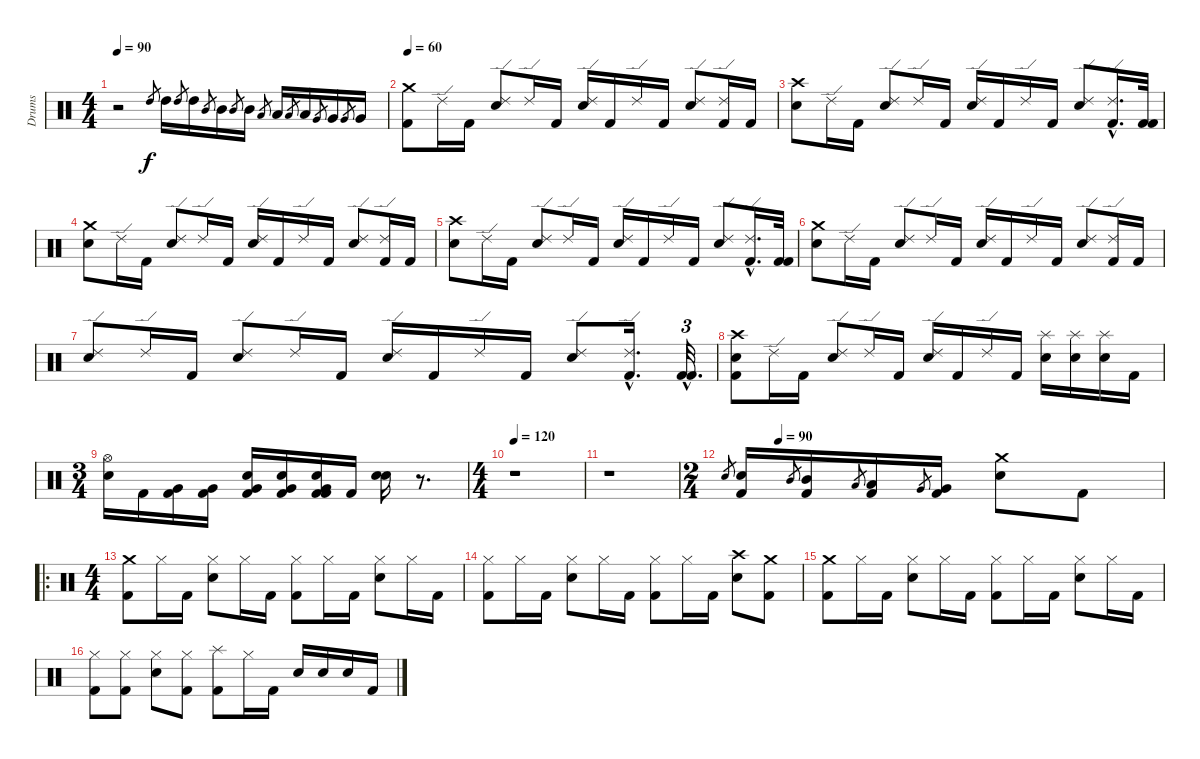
\track ("Drums" "Drums") {instrument percussion}
\staff {score}
\articulation defaults
\ts (4 4)
\tempo 90
\clef neutral
\ks c
r.2{dy f} "High Tom (hit)".8{gr} "High Tom (hit)".16 "High Tom (hit)".8{gr} "High Tom (hit)".16 "Mid Tom (hit)".8{gr} "Mid Tom (hit)".16 "Mid Tom (hit)".8{gr} "Mid Tom (hit)".16 "Low Tom (hit)".8{gr} "Low Tom (hit)".16 "Low Tom (hit)".8{gr} "Low Tom (hit)".16 "Very Low Tom (hit)".8{gr} "Very Low Tom (hit)".16 "Very Low Tom (hit)".8{gr} "Very Low Tom (hit)".16 |
\tempo 60
("Crash medium (hit)" "Kick (hit) 2").8 "Ride (edge) 2".16 "Kick (hit) 2".16 ("Ride (edge) 2" "Electric Snare (hit)").8 "Ride (edge) 2".16 "Kick (hit) 2".16 ("Ride (edge) 2" "Electric Snare (hit)").16 "Kick (hit) 2".16 "Ride (edge) 2".16 "Kick (hit) 2".16 ("Ride (edge) 2" "Electric Snare (hit)").8 ("Ride (edge) 2" "Kick (hit) 2").16 "Kick (hit) 2".16 |
("Crash high (hit)" "Electric Snare (hit)").8 "Ride (edge) 2".16 "Kick (hit) 2".16 ("Ride (edge) 2" "Electric Snare (hit)").8 "Ride (edge) 2".16 "Kick (hit) 2".16 ("Ride (edge) 2" "Electric Snare (hit)").16 "Kick (hit) 2".16 "Ride (edge) 2".16 "Kick (hit) 2".16 ("Ride (edge) 2" "Electric Snare (hit)").8 ("Ride (edge) 2" "Kick (hit) 2"{hac}).16{d} ("Kick (hit) 2" "Kick (hit) 2").32 |
("Crash medium (hit)" "Electric Snare (hit)").8 "Ride (edge) 2".16 "Kick (hit) 2".16 ("Ride (edge) 2" "Electric Snare (hit)").8 "Ride (edge) 2".16 "Kick (hit) 2".16 ("Ride (edge) 2" "Electric Snare (hit)").16 "Kick (hit) 2".16 "Ride (edge) 2".16 "Kick (hit) 2".16 ("Ride (edge) 2" "Electric Snare (hit)").8 ("Ride (edge) 2" "Kick (hit) 2").16 "Kick (hit) 2".16 |
("Crash high (hit)" "Electric Snare (hit)").8 "Ride (edge) 2".16 "Kick (hit) 2".16 ("Ride (edge) 2" "Electric Snare (hit)").8 "Ride (edge) 2".16 "Kick (hit) 2".16 ("Ride (edge) 2" "Electric Snare (hit)").16 "Kick (hit) 2".16 "Ride (edge) 2".16 "Kick (hit) 2".16 ("Ride (edge) 2" "Electric Snare (hit)").8 ("Ride (edge) 2" "Kick (hit) 2"{hac}).16{d} ("Kick (hit) 2" "Kick (hit) 2").32 |
("Crash medium (hit)" "Electric Snare (hit)").8 "Ride (edge) 2".16 "Kick (hit) 2".16 ("Ride (edge) 2" "Electric Snare (hit)").8 "Ride (edge) 2".16 "Kick (hit) 2".16 ("Ride (edge) 2" "Electric Snare (hit)").16 "Kick (hit) 2".16 "Ride (edge) 2".16 "Kick (hit) 2".16 ("Ride (edge) 2" "Electric Snare (hit)").8 ("Ride (edge) 2" "Kick (hit) 2").16 "Kick (hit) 2".16 |
("Ride (edge) 2" "Electric Snare (hit)").8 "Ride (edge) 2".16 "Kick (hit) 2".16 ("Ride (edge) 2" "Electric Snare (hit)").8 "Ride (edge) 2".16 "Kick (hit) 2".16 ("Ride (edge) 2" "Electric Snare (hit)").16 "Kick (hit) 2".16 "Ride (edge) 2".16 "Kick (hit) 2".16 ("Ride (edge) 2" "Electric Snare (hit)").8 ("Ride (edge) 2" "Kick (hit) 2"{hac}).16{d} ("Kick (hit) 2"{hac} "Kick (hit) 2"{hac}).32{d tu (3 2)} |
("Crash high (hit)" "Kick (hit) 2" "Electric Snare (hit)").8 "Ride (edge) 2".16 "Kick (hit) 2".16 ("Ride (edge) 2" "Electric Snare (hit)").8 "Ride (edge) 2".16 "Kick (hit) 2".16 ("Ride (edge) 2" "Electric Snare (hit)").16 "Kick (hit) 2".16 "Ride (edge) 2".16 "Kick (hit) 2".16 ("Splash (hit)" "Electric Snare (hit)").16 ("Splash (hit)" "Electric Snare (hit)").16 ("Splash (hit)" "Electric Snare (hit)").16 "Kick (hit) 2".16 |
\ts (3 4)
("Hi-Hat (open)" "Electric Snare (hit)").16 "Kick (hit) 2".16 ("Kick (hit) 2" "Very Low Tom (hit)").16 ("Kick (hit) 2" "Very Low Tom (hit)").16 ("Kick (hit) 2" "Very Low Tom (hit)" "Electric Snare (hit)").16 ("Kick (hit) 2" "Very Low Tom (hit)" "Electric Snare (hit)").16 ("Kick (hit) 2" "Very Low Tom (hit)" "Electric Snare (hit)" "Kick (hit) 2").16 "Kick (hit) 2".16 ("Electric Snare (hit)" "Electric Snare (hit)").16 r.8{d} |
\ts (4 4)
\tempo 120
r.1 |
r.1 |
\ts (2 4)
\tempo (90 0.125)
"Electric Snare (hit)".8{gr} ("Electric Snare (hit)" "Kick (hit) 2").16 "Mid Tom (hit)".8{gr} ("Mid Tom (hit)" "Kick (hit) 2").16 "Low Tom (hit)".8{gr} ("Low Tom (hit)" "Kick (hit) 2").16 "Very Low Tom (hit)".8{gr} ("Very Low Tom (hit)" "Kick (hit) 2").16 ("Crash medium (hit)" "Electric Snare (hit)").8 "Kick (hit) 2".8 |
\ro
\ts (4 4)
("Crash medium (hit)" "Kick (hit) 2").8 "Hi-Hat (closed)".16 "Kick (hit) 2".16 ("Hi-Hat (closed)" "Electric Snare (hit)").8 "Hi-Hat (closed)".16 "Kick (hit) 2".16 ("Hi-Hat (closed)" "Kick (hit) 2").8 "Hi-Hat (closed)".16 "Kick (hit) 2".16 ("Hi-Hat (closed)" "Electric Snare (hit)").8 "Hi-Hat (closed)".16 "Kick (hit) 2".16 |
("Hi-Hat (closed)" "Kick (hit) 2").8 "Hi-Hat (closed)".16 "Kick (hit) 2".16 ("Hi-Hat (closed)" "Electric Snare (hit)").8 "Hi-Hat (closed)".16 "Kick (hit) 2".16 ("Hi-Hat (closed)" "Kick (hit) 2").8 "Hi-Hat (closed)".16 "Kick (hit) 2".16 ("Crash high (hit)" "Electric Snare (hit)").8 ("Crash medium (hit)" "Kick (hit) 2").8 |
("Crash medium (hit)" "Kick (hit) 2").8 "Hi-Hat (closed)".16 "Kick (hit) 2".16 ("Hi-Hat (closed)" "Electric Snare (hit)").8 "Hi-Hat (closed)".16 "Kick (hit) 2".16 ("Hi-Hat (closed)" "Kick (hit) 2").8 "Hi-Hat (closed)".16 "Kick (hit) 2".16 ("Hi-Hat (closed)" "Electric Snare (hit)").8 "Hi-Hat (closed)".16 "Kick (hit) 2".16 |
("Hi-Hat (closed)" "Kick (hit) 2").8 ("Hi-Hat (closed)" "Kick (hit) 2").8 ("Hi-Hat (closed)" "Electric Snare (hit)").8 ("Hi-Hat (closed)" "Kick (hit) 2").8 ("Splash (hit)" "Kick (hit) 2").8 "Hi-Hat (closed)".16 "Kick (hit) 2".16 "Electric Snare (hit)".16 "Electric Snare (hit)".16 "Electric Snare (hit)".16 "Kick (hit) 2".16
